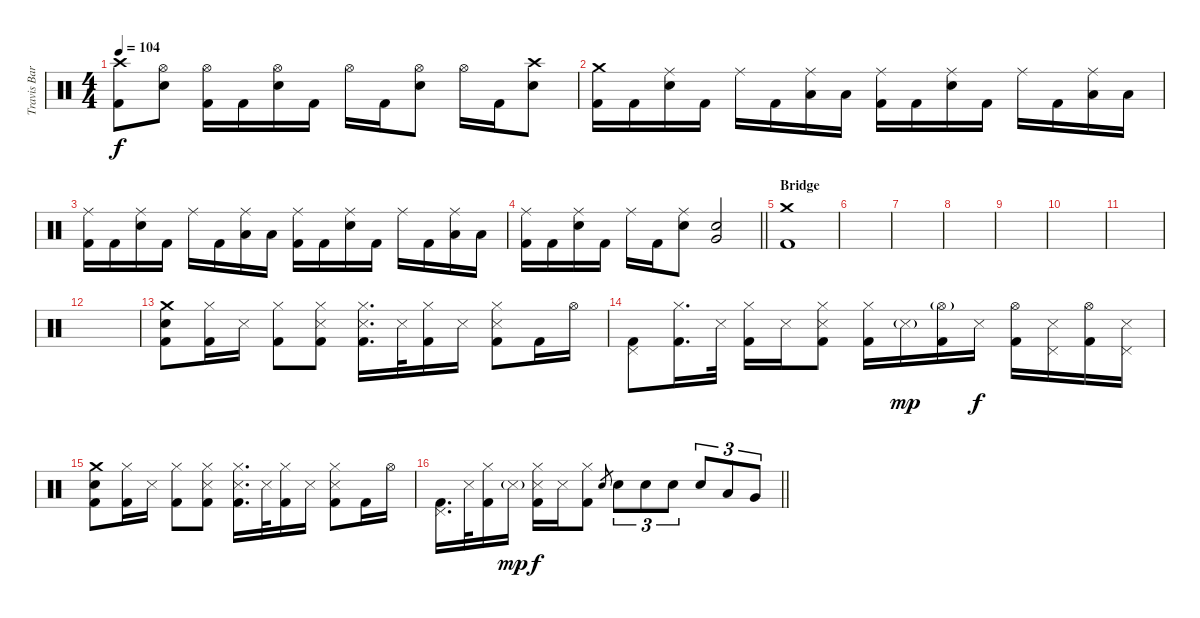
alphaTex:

\track ("Travis Barker - Drums" "Travis Bar") {instrument percussion}
\staff {score}
\articulation defaults
\ts (4 4)
\tempo 104
\clef neutral
\ks c
("Crash high (hit)" "Kick (hit) 2").8{dy f} ("Hi-Hat (open)" "Electric Snare (hit)").8 ("Hi-Hat (open)" "Kick (hit) 2").16 "Kick (hit) 2".16 ("Hi-Hat (open)" "Electric Snare (hit)").16 "Kick (hit) 2".16 "Hi-Hat (open)".16 "Kick (hit) 2".16 ("Hi-Hat (open)" "Electric Snare (hit)").8 "Hi-Hat (open)".16 "Kick (hit) 2".16 ("Crash high (hit)" "Electric Snare (hit)").8 |
("Crash medium (hit)" "Kick (hit) 2").16 "Kick (hit) 2".16 ("Ride (middle)" "Electric Snare (hit)").16 "Kick (hit) 2".16 "Ride (middle)".16 "Kick (hit) 2".16 ("Ride (middle)" "Low Tom (hit)").16 "Low Tom (hit)".16 ("Ride (middle)" "Kick (hit) 2").16 "Kick (hit) 2".16 ("Ride (middle)" "Electric Snare (hit)").16 "Kick (hit) 2".16 "Ride (middle)".16 "Kick (hit) 2".16 ("Ride (middle)" "Low Tom (hit)").16 "Low Tom (hit)".16 |
("Ride (middle)" "Kick (hit) 2").16 "Kick (hit) 2".16 ("Ride (middle)" "Electric Snare (hit)").16 "Kick (hit) 2".16 "Ride (middle)".16 "Kick (hit) 2".16 ("Ride (middle)" "Low Tom (hit)").16 "Low Tom (hit)".16 ("Ride (middle)" "Kick (hit) 2").16 "Kick (hit) 2".16 ("Ride (middle)" "Electric Snare (hit)").16 "Kick (hit) 2".16 "Ride (middle)".16 "Kick (hit) 2".16 ("Ride (middle)" "Low Tom (hit)").16 "Low Tom (hit)".16 |
\barLineRight lightlight
("Ride (middle)" "Kick (hit) 2").16 "Kick (hit) 2".16 ("Ride (middle)" "Electric Snare (hit)").16 "Kick (hit) 2".16 "Ride (middle)".16 "Kick (hit) 2".16 ("Ride (middle)" "Electric Snare (hit)").8 ("Electric Snare (hit)" "Very Low Tom (hit)").2 |
\section ("" "Bridge")
("Crash medium (hit)" "Kick (hit) 2").1 |
|
|
|
|
|
|
|
("Crash medium (hit)" "Electric Snare (hit)" "Kick (hit) 2").8 ("Hi-Hat (closed)" "Kick (hit) 2").16 "Snare (side stick) 3".16 ("Hi-Hat (closed)" "Kick (hit) 2").8 ("Hi-Hat (closed)" "Snare (side stick) 3" "Kick (hit) 2").8 ("Hi-Hat (closed)" "Snare (side stick) 3" "Kick (hit) 2").16{d} "Snare (side stick) 3".32 ("Hi-Hat (closed)" "Kick (hit) 2").16 "Snare (side stick) 3".16 ("Hi-Hat (closed)" "Snare (side stick) 3" "Kick (hit) 2").8 "Kick (hit) 2".16 "Hi-Hat (open)".16 |
("Pedal Hi-Hat (hit)" "Kick (hit) 2").8 ("Hi-Hat (closed)" "Kick (hit) 2").16{d} "Snare (side stick) 3".32 ("Hi-Hat (closed)" "Kick (hit) 2").16 "Snare (side stick) 3".16 ("Hi-Hat (closed)" "Snare (side stick) 3" "Kick (hit) 2").8 ("Hi-Hat (closed)" "Kick (hit) 2").16 "Snare (side stick) 3"{g}.16{dy mp} ("Hi-Hat (open)"{g} "Kick (hit) 2").16 "Snare (side stick) 3".16{dy f} ("Hi-Hat (open)" "Kick (hit) 2").16 ("Pedal Hi-Hat (hit)" "Snare (side stick) 3").16 ("Hi-Hat (open)" "Kick (hit) 2").16 ("Pedal Hi-Hat (hit)" "Snare (side stick) 3").16 |
("Crash medium (hit)" "Electric Snare (hit)" "Kick (hit) 2").8 ("Hi-Hat (closed)" "Kick (hit) 2").16 "Snare (side stick) 3".16 ("Hi-Hat (closed)" "Kick (hit) 2").8 ("Hi-Hat (closed)" "Snare (side stick) 3" "Kick (hit) 2").8 ("Hi-Hat (closed)" "Snare (side stick) 3" "Kick (hit) 2").16{d} "Snare (side stick) 3".32 ("Hi-Hat (closed)" "Kick (hit) 2").16 "Snare (side stick) 3".16 ("Hi-Hat (closed)" "Snare (side stick) 3" "Kick (hit) 2").8 "Kick (hit) 2".16 "Hi-Hat (open)".16 |
\barLineRight lightlight
("Pedal Hi-Hat (hit)" "Kick (hit) 2").16{d} "Snare (side stick) 3".32 ("Hi-Hat (closed)" "Kick (hit) 2").16 "Snare (side stick) 3"{g}.16{dy mp} ("Hi-Hat (closed)" "Snare (side stick) 3" "Kick (hit) 2").16{dy f} "Snare (side stick) 3".16 ("Hi-Hat (closed)" "Kick (hit) 2").8 "Electric Snare (hit)".8{gr} "Electric Snare (hit)".8{tu (3 2)} "Electric Snare (hit)".8{tu (3 2)} "Electric Snare (hit)".8{tu (3 2)} "Electric Snare (hit)".8{tu (3 2)} "Low Tom (hit)".8{tu (3 2)} "Very Low Tom (hit)".8{tu (3 2)}
